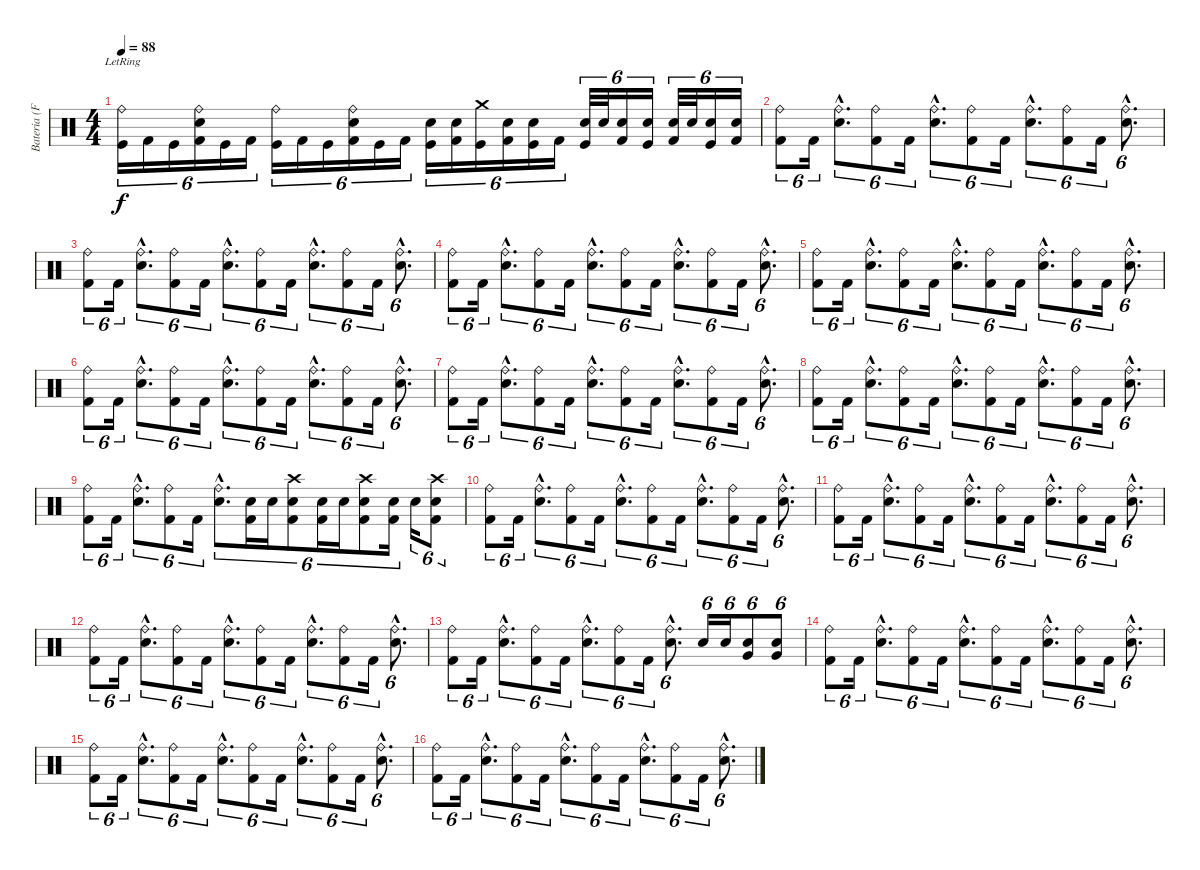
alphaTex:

\track ("Bateria (Fernando Scarcella)" "Bateria (F") {instrument percussion}
\staff {score}
\articulation defaults
\ts (4 4)
\tempo 88
\clef neutral
\ks c
("Ride (bell)"{lr} "Kick (hit)").16{tu (6 4) dy f} "Kick (hit) 2".16{tu (6 4)} "Kick (hit)".16{tu (6 4)} ("Ride (bell)" "Snare (hit) 2" "Kick (hit) 2").16{tu (6 4)} "Kick (hit)".16{tu (6 4)} "Kick (hit) 2".16{tu (6 4)} ("Ride (bell)" "Kick (hit)").16{tu (6 4)} "Kick (hit) 2".16{tu (6 4)} "Kick (hit)".16{tu (6 4)} ("Ride (bell)" "Snare (hit) 2" "Kick (hit) 2").16{tu (6 4)} "Kick (hit)".16{tu (6 4)} "Kick (hit) 2".16{tu (6 4)} ("Snare (hit) 2" "Kick (hit)").16{tu (6 4)} ("Snare (hit) 2" "Kick (hit) 2").16{tu (6 4)} ("Crash medium (hit)" "Kick (hit)").16{tu (6 4)} ("Snare (hit) 2" "Kick (hit) 2").16{tu (6 4)} ("Snare (hit) 2" "Kick (hit)").16{tu (6 4)} "Kick (hit) 2".16{tu (6 4)} ("Snare (hit) 2" "Kick (hit)").32{tu (6 4)} "Snare (hit) 2".32{tu (6 4)} ("Snare (hit) 2" "Kick (hit) 2").16{tu (6 4)} ("Snare (hit) 2" "Kick (hit)").16{tu (6 4)} ("Snare (hit) 2" "Kick (hit) 2").32{tu (6 4)} "Snare (hit) 2".32{tu (6 4)} ("Snare (hit) 2" "Kick (hit)").16{tu (6 4)} ("Snare (hit) 2" "Kick (hit) 2").16{tu (6 4)} |
("Ride (bell)" "Kick (hit) 2").8{tu (6 4)} "Kick (hit) 2".16{tu (6 4)} ("Ride (bell)"{hac} "Snare (hit) 2"{hac}).8{d tu (6 4)} ("Ride (bell)" "Kick (hit) 2").8{tu (6 4)} "Kick (hit) 2".16{tu (6 4)} ("Ride (bell)"{hac} "Snare (hit) 2"{hac}).8{d tu (6 4)} ("Ride (bell)" "Kick (hit) 2").8{tu (6 4)} "Kick (hit) 2".16{tu (6 4)} ("Ride (bell)"{hac} "Snare (hit) 2"{hac}).8{d tu (6 4)} ("Ride (bell)" "Kick (hit) 2").8{tu (6 4)} "Kick (hit) 2".16{tu (6 4)} ("Ride (bell)"{hac} "Snare (hit) 2"{hac}).8{d tu (6 4)} |
("Ride (bell)" "Kick (hit) 2").8{tu (6 4)} "Kick (hit) 2".16{tu (6 4)} ("Ride (bell)"{hac} "Snare (hit) 2"{hac}).8{d tu (6 4)} ("Ride (bell)" "Kick (hit) 2").8{tu (6 4)} "Kick (hit) 2".16{tu (6 4)} ("Ride (bell)"{hac} "Snare (hit) 2"{hac}).8{d tu (6 4)} ("Ride (bell)" "Kick (hit) 2").8{tu (6 4)} "Kick (hit) 2".16{tu (6 4)} ("Ride (bell)"{hac} "Snare (hit) 2"{hac}).8{d tu (6 4)} ("Ride (bell)" "Kick (hit) 2").8{tu (6 4)} "Kick (hit) 2".16{tu (6 4)} ("Ride (bell)"{hac} "Snare (hit) 2"{hac}).8{d tu (6 4)} |
("Ride (bell)" "Kick (hit) 2").8{tu (6 4)} "Kick (hit) 2".16{tu (6 4)} ("Ride (bell)"{hac} "Snare (hit) 2"{hac}).8{d tu (6 4)} ("Ride (bell)" "Kick (hit) 2").8{tu (6 4)} "Kick (hit) 2".16{tu (6 4)} ("Ride (bell)"{hac} "Snare (hit) 2"{hac}).8{d tu (6 4)} ("Ride (bell)" "Kick (hit) 2").8{tu (6 4)} "Kick (hit) 2".16{tu (6 4)} ("Ride (bell)"{hac} "Snare (hit) 2"{hac}).8{d tu (6 4)} ("Ride (bell)" "Kick (hit) 2").8{tu (6 4)} "Kick (hit) 2".16{tu (6 4)} ("Ride (bell)"{hac} "Snare (hit) 2"{hac}).8{d tu (6 4)} |
("Ride (bell)" "Kick (hit) 2").8{tu (6 4)} "Kick (hit) 2".16{tu (6 4)} ("Ride (bell)"{hac} "Snare (hit) 2"{hac}).8{d tu (6 4)} ("Ride (bell)" "Kick (hit) 2").8{tu (6 4)} "Kick (hit) 2".16{tu (6 4)} ("Ride (bell)"{hac} "Snare (hit) 2"{hac}).8{d tu (6 4)} ("Ride (bell)" "Kick (hit) 2").8{tu (6 4)} "Kick (hit) 2".16{tu (6 4)} ("Ride (bell)"{hac} "Snare (hit) 2"{hac}).8{d tu (6 4)} ("Ride (bell)" "Kick (hit) 2").8{tu (6 4)} "Kick (hit) 2".16{tu (6 4)} ("Ride (bell)"{hac} "Snare (hit) 2"{hac}).8{d tu (6 4)} |
("Ride (bell)" "Kick (hit) 2").8{tu (6 4)} "Kick (hit) 2".16{tu (6 4)} ("Ride (bell)"{hac} "Snare (hit) 2"{hac}).8{d tu (6 4)} ("Ride (bell)" "Kick (hit) 2").8{tu (6 4)} "Kick (hit) 2".16{tu (6 4)} ("Ride (bell)"{hac} "Snare (hit) 2"{hac}).8{d tu (6 4)} ("Ride (bell)" "Kick (hit) 2").8{tu (6 4)} "Kick (hit) 2".16{tu (6 4)} ("Ride (bell)"{hac} "Snare (hit) 2"{hac}).8{d tu (6 4)} ("Ride (bell)" "Kick (hit) 2").8{tu (6 4)} "Kick (hit) 2".16{tu (6 4)} ("Ride (bell)"{hac} "Snare (hit) 2"{hac}).8{d tu (6 4)} |
("Ride (bell)" "Kick (hit) 2").8{tu (6 4)} "Kick (hit) 2".16{tu (6 4)} ("Ride (bell)"{hac} "Snare (hit) 2"{hac}).8{d tu (6 4)} ("Ride (bell)" "Kick (hit) 2").8{tu (6 4)} "Kick (hit) 2".16{tu (6 4)} ("Ride (bell)"{hac} "Snare (hit) 2"{hac}).8{d tu (6 4)} ("Ride (bell)" "Kick (hit) 2").8{tu (6 4)} "Kick (hit) 2".16{tu (6 4)} ("Ride (bell)"{hac} "Snare (hit) 2"{hac}).8{d tu (6 4)} ("Ride (bell)" "Kick (hit) 2").8{tu (6 4)} "Kick (hit) 2".16{tu (6 4)} ("Ride (bell)"{hac} "Snare (hit) 2"{hac}).8{d tu (6 4)} |
("Ride (bell)" "Kick (hit) 2").8{tu (6 4)} "Kick (hit) 2".16{tu (6 4)} ("Ride (bell)"{hac} "Snare (hit) 2"{hac}).8{d tu (6 4)} ("Ride (bell)" "Kick (hit) 2").8{tu (6 4)} "Kick (hit) 2".16{tu (6 4)} ("Ride (bell)"{hac} "Snare (hit) 2"{hac}).8{d tu (6 4)} ("Ride (bell)" "Kick (hit) 2").8{tu (6 4)} "Kick (hit) 2".16{tu (6 4)} ("Ride (bell)"{hac} "Snare (hit) 2"{hac}).8{d tu (6 4)} ("Ride (bell)" "Kick (hit) 2").8{tu (6 4)} "Kick (hit) 2".16{tu (6 4)} ("Ride (bell)"{hac} "Snare (hit) 2"{hac}).8{d tu (6 4)} |
("Ride (bell)" "Kick (hit) 2").8{tu (6 4)} "Kick (hit) 2".16{tu (6 4)} ("Ride (bell)"{hac} "Snare (hit) 2"{hac}).8{d tu (6 4)} ("Ride (bell)" "Kick (hit) 2").8{tu (6 4)} "Kick (hit) 2".16{tu (6 4)} ("Ride (bell)"{hac} "Snare (hit) 2"{hac}).8{d tu (6 4)} ("Snare (hit) 2" "Kick (hit) 2").16{tu (6 4)} "Snare (hit) 2".16{tu (6 4)} ("Crash high (hit)" "Snare (hit) 2" "Kick (hit) 2").8{tu (6 4)} ("Snare (hit) 2" "Kick (hit) 2").16{tu (6 4)} "Snare (hit) 2".16{tu (6 4)} ("Crash high (hit)" "Snare (hit) 2" "Kick (hit) 2").8{tu (6 4)} ("Snare (hit) 2" "Kick (hit) 2").16{tu (6 4)} "Snare (hit) 2".16{tu (6 4)} ("Crash high (hit)" "Snare (hit) 2" "Kick (hit) 2").8{tu (6 4)} |
("Ride (bell)" "Kick (hit) 2").8{tu (6 4)} "Kick (hit) 2".16{tu (6 4)} ("Ride (bell)"{hac} "Snare (hit) 2"{hac}).8{d tu (6 4)} ("Ride (bell)" "Kick (hit) 2").8{tu (6 4)} "Kick (hit) 2".16{tu (6 4)} ("Ride (bell)"{hac} "Snare (hit) 2"{hac}).8{d tu (6 4)} ("Ride (bell)" "Kick (hit) 2").8{tu (6 4)} "Kick (hit) 2".16{tu (6 4)} ("Ride (bell)"{hac} "Snare (hit) 2"{hac}).8{d tu (6 4)} ("Ride (bell)" "Kick (hit) 2").8{tu (6 4)} "Kick (hit) 2".16{tu (6 4)} ("Ride (bell)"{hac} "Snare (hit) 2"{hac}).8{d tu (6 4)} |
("Ride (bell)" "Kick (hit) 2").8{tu (6 4)} "Kick (hit) 2".16{tu (6 4)} ("Ride (bell)"{hac} "Snare (hit) 2"{hac}).8{d tu (6 4)} ("Ride (bell)" "Kick (hit) 2").8{tu (6 4)} "Kick (hit) 2".16{tu (6 4)} ("Ride (bell)"{hac} "Snare (hit) 2"{hac}).8{d tu (6 4)} ("Ride (bell)" "Kick (hit) 2").8{tu (6 4)} "Kick (hit) 2".16{tu (6 4)} ("Ride (bell)"{hac} "Snare (hit) 2"{hac}).8{d tu (6 4)} ("Ride (bell)" "Kick (hit) 2").8{tu (6 4)} "Kick (hit) 2".16{tu (6 4)} ("Ride (bell)"{hac} "Snare (hit) 2"{hac}).8{d tu (6 4)} |
("Ride (bell)" "Kick (hit) 2").8{tu (6 4)} "Kick (hit) 2".16{tu (6 4)} ("Ride (bell)"{hac} "Snare (hit) 2"{hac}).8{d tu (6 4)} ("Ride (bell)" "Kick (hit) 2").8{tu (6 4)} "Kick (hit) 2".16{tu (6 4)} ("Ride (bell)"{hac} "Snare (hit) 2"{hac}).8{d tu (6 4)} ("Ride (bell)" "Kick (hit) 2").8{tu (6 4)} "Kick (hit) 2".16{tu (6 4)} ("Ride (bell)"{hac} "Snare (hit) 2"{hac}).8{d tu (6 4)} ("Ride (bell)" "Kick (hit) 2").8{tu (6 4)} "Kick (hit) 2".16{tu (6 4)} ("Ride (bell)"{hac} "Snare (hit) 2"{hac}).8{d tu (6 4)} |
("Ride (bell)" "Kick (hit) 2").8{tu (6 4)} "Kick (hit) 2".16{tu (6 4)} ("Ride (bell)"{hac} "Snare (hit) 2"{hac}).8{d tu (6 4)} ("Ride (bell)" "Kick (hit) 2").8{tu (6 4)} "Kick (hit) 2".16{tu (6 4)} ("Ride (bell)"{hac} "Snare (hit) 2"{hac}).8{d tu (6 4)} ("Ride (bell)" "Kick (hit) 2").8{tu (6 4)} "Kick (hit) 2".16{tu (6 4)} ("Ride (bell)"{hac} "Snare (hit) 2"{hac}).8{d tu (6 4)} "Snare (hit) 2".16{tu (6 4)} "Snare (hit) 2".16{tu (6 4)} ("Very Low Tom (hit)" "Snare (hit) 2").8{tu (6 4)} ("Snare (hit) 2" "Very Low Tom (hit)").8{tu (6 4)} |
("Ride (bell)" "Kick (hit) 2").8{tu (6 4)} "Kick (hit) 2".16{tu (6 4)} ("Ride (bell)"{hac} "Snare (hit) 2"{hac}).8{d tu (6 4)} ("Ride (bell)" "Kick (hit) 2").8{tu (6 4)} "Kick (hit) 2".16{tu (6 4)} ("Ride (bell)"{hac} "Snare (hit) 2"{hac}).8{d tu (6 4)} ("Ride (bell)" "Kick (hit) 2").8{tu (6 4)} "Kick (hit) 2".16{tu (6 4)} ("Ride (bell)"{hac} "Snare (hit) 2"{hac}).8{d tu (6 4)} ("Ride (bell)" "Kick (hit) 2").8{tu (6 4)} "Kick (hit) 2".16{tu (6 4)} ("Ride (bell)"{hac} "Snare (hit) 2"{hac}).8{d tu (6 4)} |
("Ride (bell)" "Kick (hit) 2").8{tu (6 4)} "Kick (hit) 2".16{tu (6 4)} ("Ride (bell)"{hac} "Snare (hit) 2"{hac}).8{d tu (6 4)} ("Ride (bell)" "Kick (hit) 2").8{tu (6 4)} "Kick (hit) 2".16{tu (6 4)} ("Ride (bell)"{hac} "Snare (hit) 2"{hac}).8{d tu (6 4)} ("Ride (bell)" "Kick (hit) 2").8{tu (6 4)} "Kick (hit) 2".16{tu (6 4)} ("Ride (bell)"{hac} "Snare (hit) 2"{hac}).8{d tu (6 4)} ("Ride (bell)" "Kick (hit) 2").8{tu (6 4)} "Kick (hit) 2".16{tu (6 4)} ("Ride (bell)"{hac} "Snare (hit) 2"{hac}).8{d tu (6 4)} |
("Ride (bell)" "Kick (hit) 2").8{tu (6 4)} "Kick (hit) 2".16{tu (6 4)} ("Ride (bell)"{hac} "Snare (hit) 2"{hac}).8{d tu (6 4)} ("Ride (bell)" "Kick (hit) 2").8{tu (6 4)} "Kick (hit) 2".16{tu (6 4)} ("Ride (bell)"{hac} "Snare (hit) 2"{hac}).8{d tu (6 4)} ("Ride (bell)" "Kick (hit) 2").8{tu (6 4)} "Kick (hit) 2".16{tu (6 4)} ("Ride (bell)"{hac} "Snare (hit) 2"{hac}).8{d tu (6 4)} ("Ride (bell)" "Kick (hit) 2").8{tu (6 4)} "Kick (hit) 2".16{tu (6 4)} ("Ride (bell)"{hac} "Snare (hit) 2"{hac}).8{d tu (6 4)}
